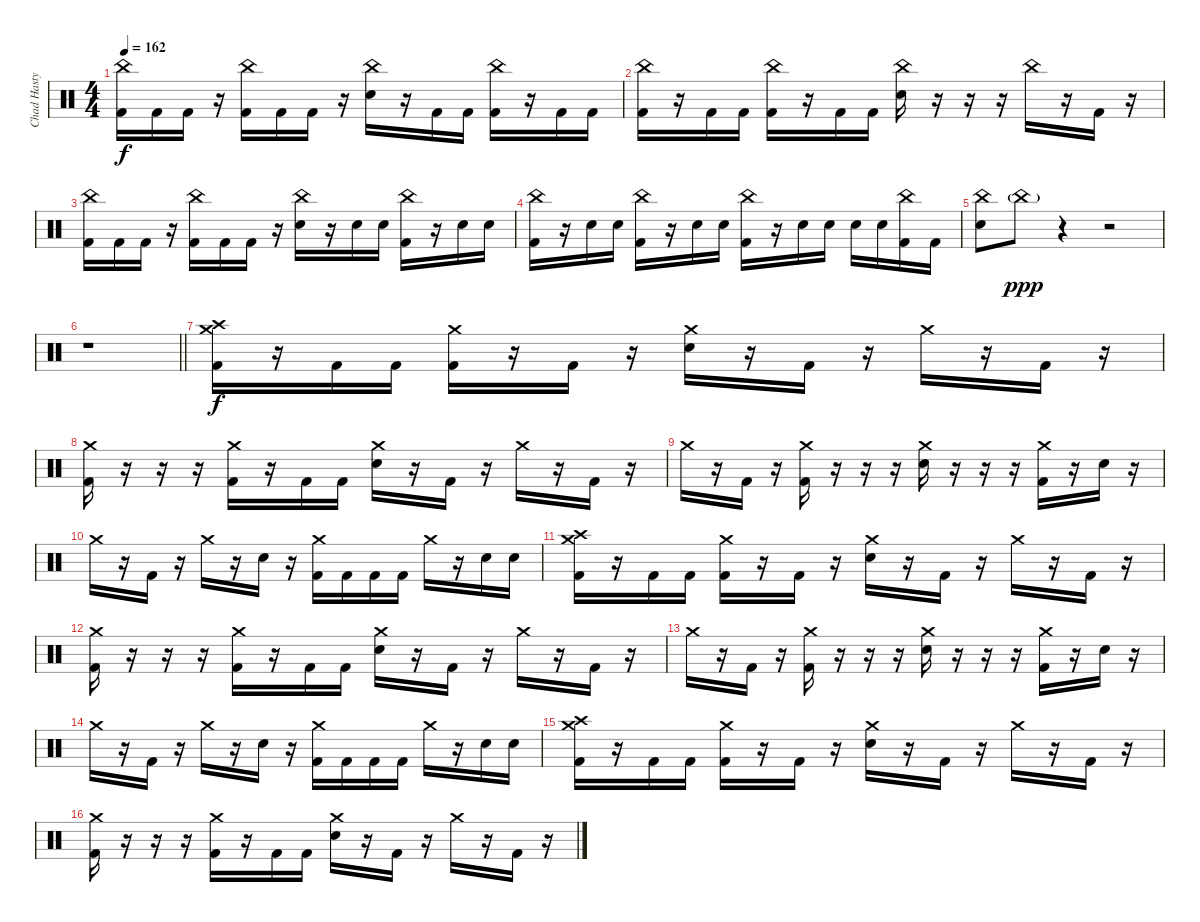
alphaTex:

\track ("Chad Hasty" "Chad Hasty") {instrument percussion}
\staff {score}
\articulation defaults
\ts (4 4)
\tempo 162
\clef neutral
\ks c
("China (hit)" "Kick (hit) 2").16{dy f} "Kick (hit) 2".16 "Kick (hit) 2".16 r.16 ("China (hit)" "Kick (hit) 2").16 "Kick (hit) 2".16 "Kick (hit) 2".16 r.16 ("China (hit)" "Snare (hit) 2").16 r.16 "Kick (hit) 2".16 "Kick (hit) 2".16 ("China (hit)" "Kick (hit) 2").16 r.16 "Kick (hit) 2".16 "Kick (hit) 2".16 |
("China (hit)" "Kick (hit) 2").16 r.16 "Kick (hit) 2".16 "Kick (hit) 2".16 ("China (hit)" "Kick (hit) 2").16 r.16 "Kick (hit) 2".16 "Kick (hit) 2".16 ("China (hit)" "Snare (hit) 2").16 r.16 r.16 r.16 "China (hit)".16 r.16 "Kick (hit) 2".16 r.16 |
("China (hit)" "Kick (hit) 2").16 "Kick (hit) 2".16 "Kick (hit) 2".16 r.16 ("China (hit)" "Kick (hit) 2").16 "Kick (hit) 2".16 "Kick (hit) 2".16 r.16 ("China (hit)" "Snare (hit) 2").16 r.16 "Snare (hit) 2".16 "Snare (hit) 2".16 ("China (hit)" "Kick (hit) 2").16 r.16 "Snare (hit) 2".16 "Snare (hit) 2".16 |
("China (hit)" "Kick (hit) 2").16 r.16 "Snare (hit) 2".16 "Snare (hit) 2".16 ("China (hit)" "Kick (hit) 2").16 r.16 "Snare (hit) 2".16 "Snare (hit) 2".16 ("China (hit)" "Kick (hit) 2").16 r.16 "Snare (hit) 2".16 "Snare (hit) 2".16 "Snare (hit) 2".16 "Snare (hit) 2".16 ("China (hit)" "Kick (hit) 2").16 "Kick (hit) 2".16 |
("China (hit)" "Snare (hit) 2").8 "China (hit)"{g}.8{dy ppp} r.4 r.2 |
\barLineRight lightlight
r.1 |
("Crash medium (hit)" "Crash high (hit)" "Kick (hit) 2").16{dy f} r.16 "Kick (hit) 2".16 "Kick (hit) 2".16 ("Crash medium (hit)" "Kick (hit) 2").16 r.16 "Kick (hit) 2".16 r.16 ("Crash medium (hit)" "Snare (hit) 2").16 r.16 "Kick (hit) 2".16 r.16 "Crash medium (hit)".16 r.16 "Kick (hit) 2".16 r.16 |
("Crash medium (hit)" "Kick (hit) 2").16 r.16 r.16 r.16 ("Crash medium (hit)" "Kick (hit) 2").16 r.16 "Kick (hit) 2".16 "Kick (hit) 2".16 ("Crash medium (hit)" "Snare (hit) 2").16 r.16 "Kick (hit) 2".16 r.16 "Crash medium (hit)".16 r.16 "Kick (hit) 2".16 r.16 |
"Crash medium (hit)".16 r.16 "Kick (hit) 2".16 r.16 ("Crash medium (hit)" "Kick (hit) 2").16 r.16 r.16 r.16 ("Crash medium (hit)" "Snare (hit) 2").16 r.16 r.16 r.16 ("Crash medium (hit)" "Kick (hit) 2").16 r.16 "Snare (hit) 2".16 r.16 |
"Crash medium (hit)".16 r.16 "Kick (hit) 2".16 r.16 "Crash medium (hit)".16 r.16 "Snare (hit) 2".16 r.16 ("Crash medium (hit)" "Kick (hit) 2").16 "Kick (hit) 2".16 "Kick (hit) 2".16 "Kick (hit) 2".16 "Crash medium (hit)".16 r.16 "Snare (hit) 2".16 "Snare (hit) 2".16 |
("Crash medium (hit)" "Crash high (hit)" "Kick (hit) 2").16 r.16 "Kick (hit) 2".16 "Kick (hit) 2".16 ("Crash medium (hit)" "Kick (hit) 2").16 r.16 "Kick (hit) 2".16 r.16 ("Crash medium (hit)" "Snare (hit) 2").16 r.16 "Kick (hit) 2".16 r.16 "Crash medium (hit)".16 r.16 "Kick (hit) 2".16 r.16 |
("Crash medium (hit)" "Kick (hit) 2").16 r.16 r.16 r.16 ("Crash medium (hit)" "Kick (hit) 2").16 r.16 "Kick (hit) 2".16 "Kick (hit) 2".16 ("Crash medium (hit)" "Snare (hit) 2").16 r.16 "Kick (hit) 2".16 r.16 "Crash medium (hit)".16 r.16 "Kick (hit) 2".16 r.16 |
"Crash medium (hit)".16 r.16 "Kick (hit) 2".16 r.16 ("Crash medium (hit)" "Kick (hit) 2").16 r.16 r.16 r.16 ("Crash medium (hit)" "Snare (hit) 2").16 r.16 r.16 r.16 ("Crash medium (hit)" "Kick (hit) 2").16 r.16 "Snare (hit) 2".16 r.16 |
"Crash medium (hit)".16 r.16 "Kick (hit) 2".16 r.16 "Crash medium (hit)".16 r.16 "Snare (hit) 2".16 r.16 ("Crash medium (hit)" "Kick (hit) 2").16 "Kick (hit) 2".16 "Kick (hit) 2".16 "Kick (hit) 2".16 "Crash medium (hit)".16 r.16 "Snare (hit) 2".16 "Snare (hit) 2".16 |
("Crash medium (hit)" "Crash high (hit)" "Kick (hit) 2").16 r.16 "Kick (hit) 2".16 "Kick (hit) 2".16 ("Crash medium (hit)" "Kick (hit) 2").16 r.16 "Kick (hit) 2".16 r.16 ("Crash medium (hit)" "Snare (hit) 2").16 r.16 "Kick (hit) 2".16 r.16 "Crash medium (hit)".16 r.16 "Kick (hit) 2".16 r.16 |
("Crash medium (hit)" "Kick (hit) 2").16 r.16 r.16 r.16 ("Crash medium (hit)" "Kick (hit) 2").16 r.16 "Kick (hit) 2".16 "Kick (hit) 2".16 ("Crash medium (hit)" "Snare (hit) 2").16 r.16 "Kick (hit) 2".16 r.16 "Crash medium (hit)".16 r.16 "Kick (hit) 2".16 r.16
